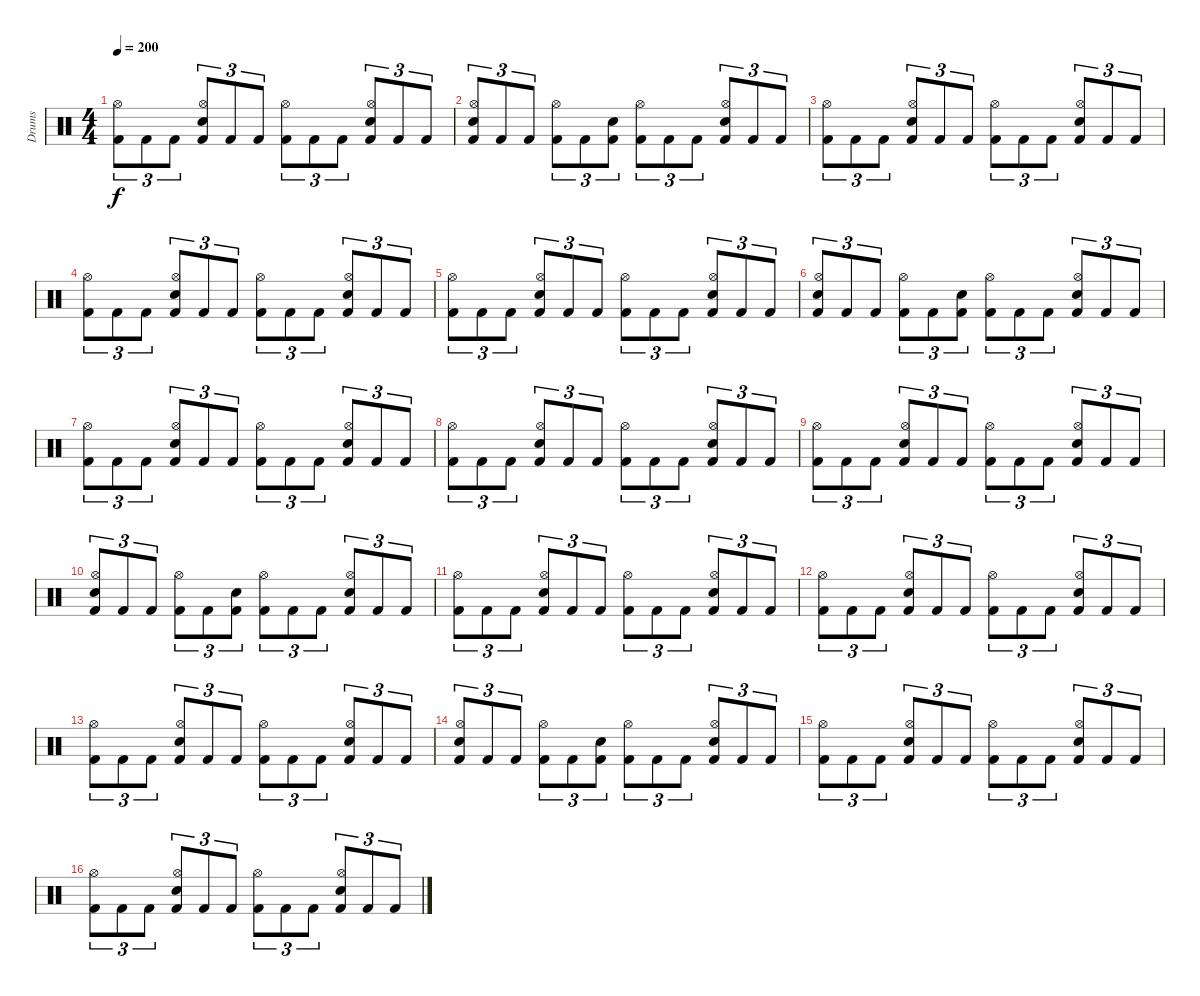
\track ("Drums" "Drums") {instrument percussion}
\staff {score}
\articulation defaults
\ts (4 4)
\tempo 200
\clef neutral
\ks c
("Kick (hit) 2" "Hi-Hat (open)").8{tu (3 2) dy f} "Kick (hit) 2".8{tu (3 2)} "Kick (hit) 2".8{tu (3 2)} ("Kick (hit) 2" "Snare (hit) 2" "Hi-Hat (open)").8{tu (3 2)} "Kick (hit) 2".8{tu (3 2)} "Kick (hit) 2".8{tu (3 2)} ("Kick (hit) 2" "Hi-Hat (open)").8{tu (3 2)} "Kick (hit) 2".8{tu (3 2)} "Kick (hit) 2".8{tu (3 2)} ("Kick (hit) 2" "Snare (hit) 2" "Hi-Hat (open)").8{tu (3 2)} "Kick (hit) 2".8{tu (3 2)} "Kick (hit) 2".8{tu (3 2)} |
("Kick (hit) 2" "Snare (hit) 2" "Hi-Hat (open)").8{tu (3 2)} "Kick (hit) 2".8{tu (3 2)} "Kick (hit) 2".8{tu (3 2)} ("Kick (hit) 2" "Hi-Hat (open)").8{tu (3 2)} "Kick (hit) 2".8{tu (3 2)} ("Kick (hit) 2" "Snare (hit) 2").8{tu (3 2)} ("Kick (hit) 2" "Hi-Hat (open)").8{tu (3 2)} "Kick (hit) 2".8{tu (3 2)} "Kick (hit) 2".8{tu (3 2)} ("Kick (hit) 2" "Snare (hit) 2" "Hi-Hat (open)").8{tu (3 2)} "Kick (hit) 2".8{tu (3 2)} "Kick (hit) 2".8{tu (3 2)} |
("Kick (hit) 2" "Hi-Hat (open)").8{tu (3 2)} "Kick (hit) 2".8{tu (3 2)} "Kick (hit) 2".8{tu (3 2)} ("Kick (hit) 2" "Snare (hit) 2" "Hi-Hat (open)").8{tu (3 2)} "Kick (hit) 2".8{tu (3 2)} "Kick (hit) 2".8{tu (3 2)} ("Kick (hit) 2" "Hi-Hat (open)").8{tu (3 2)} "Kick (hit) 2".8{tu (3 2)} "Kick (hit) 2".8{tu (3 2)} ("Kick (hit) 2" "Snare (hit) 2" "Hi-Hat (open)").8{tu (3 2)} "Kick (hit) 2".8{tu (3 2)} "Kick (hit) 2".8{tu (3 2)} |
("Kick (hit) 2" "Hi-Hat (open)").8{tu (3 2)} "Kick (hit) 2".8{tu (3 2)} "Kick (hit) 2".8{tu (3 2)} ("Kick (hit) 2" "Snare (hit) 2" "Hi-Hat (open)").8{tu (3 2)} "Kick (hit) 2".8{tu (3 2)} "Kick (hit) 2".8{tu (3 2)} ("Kick (hit) 2" "Hi-Hat (open)").8{tu (3 2)} "Kick (hit) 2".8{tu (3 2)} "Kick (hit) 2".8{tu (3 2)} ("Kick (hit) 2" "Snare (hit) 2" "Hi-Hat (open)").8{tu (3 2)} "Kick (hit) 2".8{tu (3 2)} "Kick (hit) 2".8{tu (3 2)} |
("Kick (hit) 2" "Hi-Hat (open)").8{tu (3 2)} "Kick (hit) 2".8{tu (3 2)} "Kick (hit) 2".8{tu (3 2)} ("Kick (hit) 2" "Snare (hit) 2" "Hi-Hat (open)").8{tu (3 2)} "Kick (hit) 2".8{tu (3 2)} "Kick (hit) 2".8{tu (3 2)} ("Kick (hit) 2" "Hi-Hat (open)").8{tu (3 2)} "Kick (hit) 2".8{tu (3 2)} "Kick (hit) 2".8{tu (3 2)} ("Kick (hit) 2" "Snare (hit) 2" "Hi-Hat (open)").8{tu (3 2)} "Kick (hit) 2".8{tu (3 2)} "Kick (hit) 2".8{tu (3 2)} |
("Kick (hit) 2" "Snare (hit) 2" "Hi-Hat (open)").8{tu (3 2)} "Kick (hit) 2".8{tu (3 2)} "Kick (hit) 2".8{tu (3 2)} ("Kick (hit) 2" "Hi-Hat (open)").8{tu (3 2)} "Kick (hit) 2".8{tu (3 2)} ("Kick (hit) 2" "Snare (hit) 2").8{tu (3 2)} ("Kick (hit) 2" "Hi-Hat (open)").8{tu (3 2)} "Kick (hit) 2".8{tu (3 2)} "Kick (hit) 2".8{tu (3 2)} ("Kick (hit) 2" "Snare (hit) 2" "Hi-Hat (open)").8{tu (3 2)} "Kick (hit) 2".8{tu (3 2)} "Kick (hit) 2".8{tu (3 2)} |
("Kick (hit) 2" "Hi-Hat (open)").8{tu (3 2)} "Kick (hit) 2".8{tu (3 2)} "Kick (hit) 2".8{tu (3 2)} ("Kick (hit) 2" "Snare (hit) 2" "Hi-Hat (open)").8{tu (3 2)} "Kick (hit) 2".8{tu (3 2)} "Kick (hit) 2".8{tu (3 2)} ("Kick (hit) 2" "Hi-Hat (open)").8{tu (3 2)} "Kick (hit) 2".8{tu (3 2)} "Kick (hit) 2".8{tu (3 2)} ("Kick (hit) 2" "Snare (hit) 2" "Hi-Hat (open)").8{tu (3 2)} "Kick (hit) 2".8{tu (3 2)} "Kick (hit) 2".8{tu (3 2)} |
("Kick (hit) 2" "Hi-Hat (open)").8{tu (3 2)} "Kick (hit) 2".8{tu (3 2)} "Kick (hit) 2".8{tu (3 2)} ("Kick (hit) 2" "Snare (hit) 2" "Hi-Hat (open)").8{tu (3 2)} "Kick (hit) 2".8{tu (3 2)} "Kick (hit) 2".8{tu (3 2)} ("Kick (hit) 2" "Hi-Hat (open)").8{tu (3 2)} "Kick (hit) 2".8{tu (3 2)} "Kick (hit) 2".8{tu (3 2)} ("Kick (hit) 2" "Snare (hit) 2" "Hi-Hat (open)").8{tu (3 2)} "Kick (hit) 2".8{tu (3 2)} "Kick (hit) 2".8{tu (3 2)} |
("Kick (hit) 2" "Hi-Hat (open)").8{tu (3 2)} "Kick (hit) 2".8{tu (3 2)} "Kick (hit) 2".8{tu (3 2)} ("Kick (hit) 2" "Snare (hit) 2" "Hi-Hat (open)").8{tu (3 2)} "Kick (hit) 2".8{tu (3 2)} "Kick (hit) 2".8{tu (3 2)} ("Kick (hit) 2" "Hi-Hat (open)").8{tu (3 2)} "Kick (hit) 2".8{tu (3 2)} "Kick (hit) 2".8{tu (3 2)} ("Kick (hit) 2" "Snare (hit) 2" "Hi-Hat (open)").8{tu (3 2)} "Kick (hit) 2".8{tu (3 2)} "Kick (hit) 2".8{tu (3 2)} |
("Kick (hit) 2" "Snare (hit) 2" "Hi-Hat (open)").8{tu (3 2)} "Kick (hit) 2".8{tu (3 2)} "Kick (hit) 2".8{tu (3 2)} ("Kick (hit) 2" "Hi-Hat (open)").8{tu (3 2)} "Kick (hit) 2".8{tu (3 2)} ("Kick (hit) 2" "Snare (hit) 2").8{tu (3 2)} ("Kick (hit) 2" "Hi-Hat (open)").8{tu (3 2)} "Kick (hit) 2".8{tu (3 2)} "Kick (hit) 2".8{tu (3 2)} ("Kick (hit) 2" "Snare (hit) 2" "Hi-Hat (open)").8{tu (3 2)} "Kick (hit) 2".8{tu (3 2)} "Kick (hit) 2".8{tu (3 2)} |
("Kick (hit) 2" "Hi-Hat (open)").8{tu (3 2)} "Kick (hit) 2".8{tu (3 2)} "Kick (hit) 2".8{tu (3 2)} ("Kick (hit) 2" "Snare (hit) 2" "Hi-Hat (open)").8{tu (3 2)} "Kick (hit) 2".8{tu (3 2)} "Kick (hit) 2".8{tu (3 2)} ("Kick (hit) 2" "Hi-Hat (open)").8{tu (3 2)} "Kick (hit) 2".8{tu (3 2)} "Kick (hit) 2".8{tu (3 2)} ("Kick (hit) 2" "Snare (hit) 2" "Hi-Hat (open)").8{tu (3 2)} "Kick (hit) 2".8{tu (3 2)} "Kick (hit) 2".8{tu (3 2)} |
("Kick (hit) 2" "Hi-Hat (open)").8{tu (3 2)} "Kick (hit) 2".8{tu (3 2)} "Kick (hit) 2".8{tu (3 2)} ("Kick (hit) 2" "Snare (hit) 2" "Hi-Hat (open)").8{tu (3 2)} "Kick (hit) 2".8{tu (3 2)} "Kick (hit) 2".8{tu (3 2)} ("Kick (hit) 2" "Hi-Hat (open)").8{tu (3 2)} "Kick (hit) 2".8{tu (3 2)} "Kick (hit) 2".8{tu (3 2)} ("Kick (hit) 2" "Snare (hit) 2" "Hi-Hat (open)").8{tu (3 2)} "Kick (hit) 2".8{tu (3 2)} "Kick (hit) 2".8{tu (3 2)} |
("Kick (hit) 2" "Hi-Hat (open)").8{tu (3 2)} "Kick (hit) 2".8{tu (3 2)} "Kick (hit) 2".8{tu (3 2)} ("Kick (hit) 2" "Snare (hit) 2" "Hi-Hat (open)").8{tu (3 2)} "Kick (hit) 2".8{tu (3 2)} "Kick (hit) 2".8{tu (3 2)} ("Kick (hit) 2" "Hi-Hat (open)").8{tu (3 2)} "Kick (hit) 2".8{tu (3 2)} "Kick (hit) 2".8{tu (3 2)} ("Kick (hit) 2" "Snare (hit) 2" "Hi-Hat (open)").8{tu (3 2)} "Kick (hit) 2".8{tu (3 2)} "Kick (hit) 2".8{tu (3 2)} |
("Kick (hit) 2" "Snare (hit) 2" "Hi-Hat (open)").8{tu (3 2)} "Kick (hit) 2".8{tu (3 2)} "Kick (hit) 2".8{tu (3 2)} ("Kick (hit) 2" "Hi-Hat (open)").8{tu (3 2)} "Kick (hit) 2".8{tu (3 2)} ("Kick (hit) 2" "Snare (hit) 2").8{tu (3 2)} ("Kick (hit) 2" "Hi-Hat (open)").8{tu (3 2)} "Kick (hit) 2".8{tu (3 2)} "Kick (hit) 2".8{tu (3 2)} ("Kick (hit) 2" "Snare (hit) 2" "Hi-Hat (open)").8{tu (3 2)} "Kick (hit) 2".8{tu (3 2)} "Kick (hit) 2".8{tu (3 2)} |
("Kick (hit) 2" "Hi-Hat (open)").8{tu (3 2)} "Kick (hit) 2".8{tu (3 2)} "Kick (hit) 2".8{tu (3 2)} ("Kick (hit) 2" "Snare (hit) 2" "Hi-Hat (open)").8{tu (3 2)} "Kick (hit) 2".8{tu (3 2)} "Kick (hit) 2".8{tu (3 2)} ("Kick (hit) 2" "Hi-Hat (open)").8{tu (3 2)} "Kick (hit) 2".8{tu (3 2)} "Kick (hit) 2".8{tu (3 2)} ("Kick (hit) 2" "Snare (hit) 2" "Hi-Hat (open)").8{tu (3 2)} "Kick (hit) 2".8{tu (3 2)} "Kick (hit) 2".8{tu (3 2)} |
("Kick (hit) 2" "Hi-Hat (open)").8{tu (3 2)} "Kick (hit) 2".8{tu (3 2)} "Kick (hit) 2".8{tu (3 2)} ("Kick (hit) 2" "Snare (hit) 2" "Hi-Hat (open)").8{tu (3 2)} "Kick (hit) 2".8{tu (3 2)} "Kick (hit) 2".8{tu (3 2)} ("Kick (hit) 2" "Hi-Hat (open)").8{tu (3 2)} "Kick (hit) 2".8{tu (3 2)} "Kick (hit) 2".8{tu (3 2)} ("Kick (hit) 2" "Snare (hit) 2" "Hi-Hat (open)").8{tu (3 2)} "Kick (hit) 2".8{tu (3 2)} "Kick (hit) 2".8{tu (3 2)}
